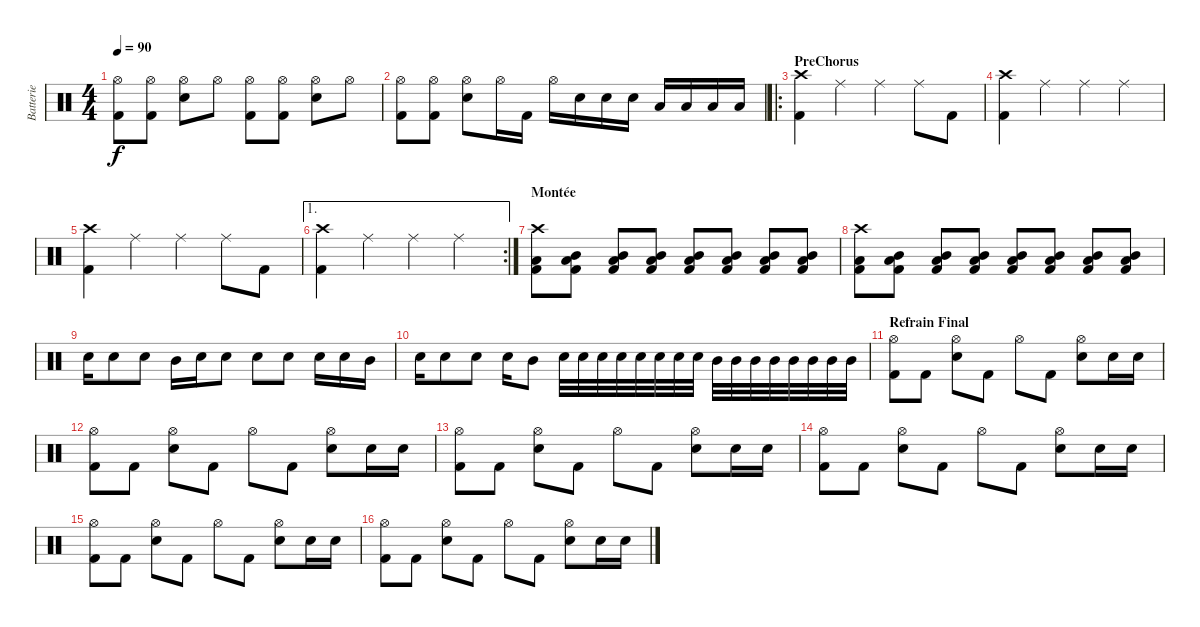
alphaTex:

\track ("Batterie" "Batterie") {instrument percussion}
\staff {score}
\articulation defaults
\ts (4 4)
\tempo 90
\clef neutral
\ks c
("Hi-Hat (open)" "Kick (hit) 2").8{dy f} ("Hi-Hat (open)" "Kick (hit) 2").8 ("Hi-Hat (open)" "Electric Snare (hit)").8 "Hi-Hat (open)".8 ("Hi-Hat (open)" "Kick (hit) 2").8 ("Hi-Hat (open)" "Kick (hit) 2").8 ("Hi-Hat (open)" "Electric Snare (hit)").8 "Hi-Hat (open)".8 |
("Hi-Hat (open)" "Kick (hit) 2").8 ("Hi-Hat (open)" "Kick (hit) 2").8 ("Hi-Hat (open)" "Electric Snare (hit)").8 "Hi-Hat (open)".16 "Kick (hit) 2".16 "Hi-Hat (open)".16 "Electric Snare (hit)".16 "Electric Snare (hit)".16 "Electric Snare (hit)".16 "Low Tom (hit)".16 "Low Tom (hit)".16 "Low Tom (hit)".16 "Low Tom (hit)".16 |
\ro
\section ("" "PreChorus")
("Kick (hit) 2" "Crash high (hit)").4 "Ride (middle)".4 "Ride (middle)".4 "Ride (middle)".8 "Kick (hit) 2".8 |
("Kick (hit) 2" "Crash high (hit)").4 "Ride (middle)".4 "Ride (middle)".4 "Ride (middle)".4 |
("Kick (hit) 2" "Crash high (hit)").4 "Ride (middle)".4 "Ride (middle)".4 "Ride (middle)".8 "Kick (hit) 2".8 |
\ae 1
\rc 2
("Kick (hit) 2" "Crash high (hit)").4 "Ride (middle)".4 "Ride (middle)".4 "Ride (middle)".4 |
\section ("" "Montée")
("Crash high (hit)" "Low Tom (hit)" "Kick (hit) 2").8{volume 7} ("Mid Tom (hit)" "Low Tom (hit)" "Kick (hit) 2").8{volume 13} ("Mid Tom (hit)" "Low Tom (hit)" "Kick (hit) 2").8 ("Mid Tom (hit)" "Low Tom (hit)" "Kick (hit) 2").8 ("Mid Tom (hit)" "Low Tom (hit)" "Kick (hit) 2").8 ("Mid Tom (hit)" "Low Tom (hit)" "Kick (hit) 2").8 ("Mid Tom (hit)" "Low Tom (hit)" "Kick (hit) 2").8 ("Mid Tom (hit)" "Low Tom (hit)" "Kick (hit) 2").8 |
("Crash high (hit)" "Low Tom (hit)" "Kick (hit) 2").8 ("Mid Tom (hit)" "Low Tom (hit)" "Kick (hit) 2").8 ("Mid Tom (hit)" "Low Tom (hit)" "Kick (hit) 2").8 ("Mid Tom (hit)" "Low Tom (hit)" "Kick (hit) 2").8 ("Mid Tom (hit)" "Low Tom (hit)" "Kick (hit) 2").8 ("Mid Tom (hit)" "Low Tom (hit)" "Kick (hit) 2").8 ("Mid Tom (hit)" "Low Tom (hit)" "Kick (hit) 2").8 ("Mid Tom (hit)" "Low Tom (hit)" "Kick (hit) 2").8 |
"Electric Snare (hit)".16 "Electric Snare (hit)".8 "Electric Snare (hit)".8 "Mid Tom (hit)".16 "Electric Snare (hit)".16 "Electric Snare (hit)".8 "Electric Snare (hit)".8 "Electric Snare (hit)".8 "Electric Snare (hit)".16 "Electric Snare (hit)".16 "Mid Tom (hit)".16 |
"Electric Snare (hit)".16 "Electric Snare (hit)".8 "Electric Snare (hit)".8 "Electric Snare (hit)".16 "Mid Tom (hit)".8 "Electric Snare (hit)".32 "Electric Snare (hit)".32 "Electric Snare (hit)".32 "Electric Snare (hit)".32 "Electric Snare (hit)".32 "Electric Snare (hit)".32 "Electric Snare (hit)".32 "Electric Snare (hit)".32 "Mid Tom (hit)".32 "Mid Tom (hit)".32 "Mid Tom (hit)".32 "Mid Tom (hit)".32 "Mid Tom (hit)".32 "Mid Tom (hit)".32 "Mid Tom (hit)".32 "Mid Tom (hit)".32 |
\section ("" "Refrain Final")
("Hi-Hat (open)" "Kick (hit) 2").8 "Kick (hit) 2".8 ("Hi-Hat (open)" "Electric Snare (hit)").8 "Kick (hit) 2".8 "Hi-Hat (open)".8 "Kick (hit) 2".8 ("Hi-Hat (open)" "Electric Snare (hit)").8 "Electric Snare (hit)".16 "Electric Snare (hit)".16 |
("Hi-Hat (open)" "Kick (hit) 2").8 "Kick (hit) 2".8 ("Hi-Hat (open)" "Electric Snare (hit)").8 "Kick (hit) 2".8 "Hi-Hat (open)".8 "Kick (hit) 2".8 ("Hi-Hat (open)" "Electric Snare (hit)").8 "Electric Snare (hit)".16 "Electric Snare (hit)".16 |
("Hi-Hat (open)" "Kick (hit) 2").8 "Kick (hit) 2".8 ("Hi-Hat (open)" "Electric Snare (hit)").8 "Kick (hit) 2".8 "Hi-Hat (open)".8 "Kick (hit) 2".8 ("Hi-Hat (open)" "Electric Snare (hit)").8 "Electric Snare (hit)".16 "Electric Snare (hit)".16 |
("Hi-Hat (open)" "Kick (hit) 2").8 "Kick (hit) 2".8 ("Hi-Hat (open)" "Electric Snare (hit)").8 "Kick (hit) 2".8 "Hi-Hat (open)".8 "Kick (hit) 2".8 ("Hi-Hat (open)" "Electric Snare (hit)").8 "Electric Snare (hit)".16 "Electric Snare (hit)".16 |
("Hi-Hat (open)" "Kick (hit) 2").8 "Kick (hit) 2".8 ("Hi-Hat (open)" "Electric Snare (hit)").8 "Kick (hit) 2".8 "Hi-Hat (open)".8 "Kick (hit) 2".8 ("Hi-Hat (open)" "Electric Snare (hit)").8 "Electric Snare (hit)".16 "Electric Snare (hit)".16 |
("Hi-Hat (open)" "Kick (hit) 2").8 "Kick (hit) 2".8 ("Hi-Hat (open)" "Electric Snare (hit)").8 "Kick (hit) 2".8 "Hi-Hat (open)".8 "Kick (hit) 2".8 ("Hi-Hat (open)" "Electric Snare (hit)").8 "Electric Snare (hit)".16 "Electric Snare (hit)".16
